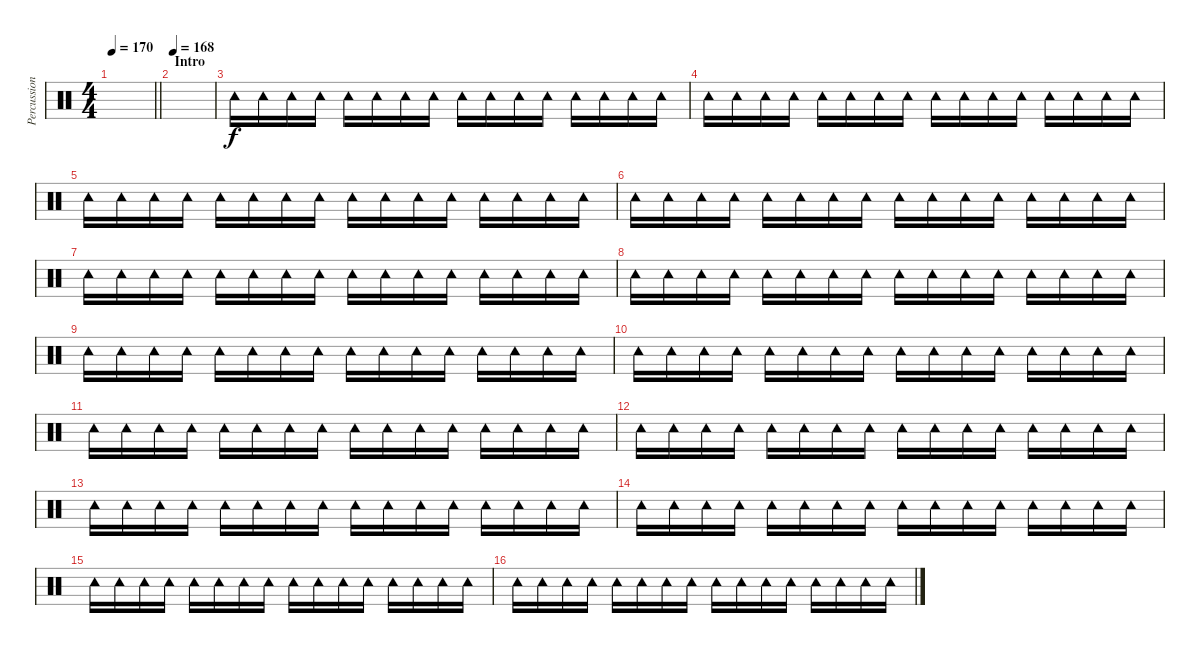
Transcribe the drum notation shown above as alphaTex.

\track ("Percussion" "Percussion") {instrument percussion}
\staff {score}
\articulation defaults
\ts (4 4)
\tempo 170
\clef neutral
\barLineRight lightlight
\ks c
|
\section ("" "Intro")
\tempo 168
|
"Tambourine (hit)".16 "Tambourine (hit)".16 "Tambourine (hit)".16 "Tambourine (hit)".16 "Tambourine (hit)".16 "Tambourine (hit)".16 "Tambourine (hit)".16 "Tambourine (hit)".16 "Tambourine (hit)".16 "Tambourine (hit)".16 "Tambourine (hit)".16 "Tambourine (hit)".16 "Tambourine (hit)".16 "Tambourine (hit)".16 "Tambourine (hit)".16 "Tambourine (hit)".16 |
"Tambourine (hit)".16 "Tambourine (hit)".16 "Tambourine (hit)".16 "Tambourine (hit)".16 "Tambourine (hit)".16 "Tambourine (hit)".16 "Tambourine (hit)".16 "Tambourine (hit)".16 "Tambourine (hit)".16 "Tambourine (hit)".16 "Tambourine (hit)".16 "Tambourine (hit)".16 "Tambourine (hit)".16 "Tambourine (hit)".16 "Tambourine (hit)".16 "Tambourine (hit)".16 |
"Tambourine (hit)".16 "Tambourine (hit)".16 "Tambourine (hit)".16 "Tambourine (hit)".16 "Tambourine (hit)".16 "Tambourine (hit)".16 "Tambourine (hit)".16 "Tambourine (hit)".16 "Tambourine (hit)".16 "Tambourine (hit)".16 "Tambourine (hit)".16 "Tambourine (hit)".16 "Tambourine (hit)".16 "Tambourine (hit)".16 "Tambourine (hit)".16 "Tambourine (hit)".16 |
"Tambourine (hit)".16 "Tambourine (hit)".16 "Tambourine (hit)".16 "Tambourine (hit)".16 "Tambourine (hit)".16 "Tambourine (hit)".16 "Tambourine (hit)".16 "Tambourine (hit)".16 "Tambourine (hit)".16 "Tambourine (hit)".16 "Tambourine (hit)".16 "Tambourine (hit)".16 "Tambourine (hit)".16 "Tambourine (hit)".16 "Tambourine (hit)".16 "Tambourine (hit)".16 |
"Tambourine (hit)".16 "Tambourine (hit)".16 "Tambourine (hit)".16 "Tambourine (hit)".16 "Tambourine (hit)".16 "Tambourine (hit)".16 "Tambourine (hit)".16 "Tambourine (hit)".16 "Tambourine (hit)".16 "Tambourine (hit)".16 "Tambourine (hit)".16 "Tambourine (hit)".16 "Tambourine (hit)".16 "Tambourine (hit)".16 "Tambourine (hit)".16 "Tambourine (hit)".16 |
"Tambourine (hit)".16 "Tambourine (hit)".16 "Tambourine (hit)".16 "Tambourine (hit)".16 "Tambourine (hit)".16 "Tambourine (hit)".16 "Tambourine (hit)".16 "Tambourine (hit)".16 "Tambourine (hit)".16 "Tambourine (hit)".16 "Tambourine (hit)".16 "Tambourine (hit)".16 "Tambourine (hit)".16 "Tambourine (hit)".16 "Tambourine (hit)".16 "Tambourine (hit)".16 |
"Tambourine (hit)".16 "Tambourine (hit)".16 "Tambourine (hit)".16 "Tambourine (hit)".16 "Tambourine (hit)".16 "Tambourine (hit)".16 "Tambourine (hit)".16 "Tambourine (hit)".16 "Tambourine (hit)".16 "Tambourine (hit)".16 "Tambourine (hit)".16 "Tambourine (hit)".16 "Tambourine (hit)".16 "Tambourine (hit)".16 "Tambourine (hit)".16 "Tambourine (hit)".16 |
"Tambourine (hit)".16 "Tambourine (hit)".16 "Tambourine (hit)".16 "Tambourine (hit)".16 "Tambourine (hit)".16 "Tambourine (hit)".16 "Tambourine (hit)".16 "Tambourine (hit)".16 "Tambourine (hit)".16 "Tambourine (hit)".16 "Tambourine (hit)".16 "Tambourine (hit)".16 "Tambourine (hit)".16 "Tambourine (hit)".16 "Tambourine (hit)".16 "Tambourine (hit)".16 |
"Tambourine (hit)".16 "Tambourine (hit)".16 "Tambourine (hit)".16 "Tambourine (hit)".16 "Tambourine (hit)".16 "Tambourine (hit)".16 "Tambourine (hit)".16 "Tambourine (hit)".16 "Tambourine (hit)".16 "Tambourine (hit)".16 "Tambourine (hit)".16 "Tambourine (hit)".16 "Tambourine (hit)".16 "Tambourine (hit)".16 "Tambourine (hit)".16 "Tambourine (hit)".16 |
"Tambourine (hit)".16 "Tambourine (hit)".16 "Tambourine (hit)".16 "Tambourine (hit)".16 "Tambourine (hit)".16 "Tambourine (hit)".16 "Tambourine (hit)".16 "Tambourine (hit)".16 "Tambourine (hit)".16 "Tambourine (hit)".16 "Tambourine (hit)".16 "Tambourine (hit)".16 "Tambourine (hit)".16 "Tambourine (hit)".16 "Tambourine (hit)".16 "Tambourine (hit)".16 |
"Tambourine (hit)".16 "Tambourine (hit)".16 "Tambourine (hit)".16 "Tambourine (hit)".16 "Tambourine (hit)".16 "Tambourine (hit)".16 "Tambourine (hit)".16 "Tambourine (hit)".16 "Tambourine (hit)".16 "Tambourine (hit)".16 "Tambourine (hit)".16 "Tambourine (hit)".16 "Tambourine (hit)".16 "Tambourine (hit)".16 "Tambourine (hit)".16 "Tambourine (hit)".16 |
"Tambourine (hit)".16 "Tambourine (hit)".16 "Tambourine (hit)".16 "Tambourine (hit)".16 "Tambourine (hit)".16 "Tambourine (hit)".16 "Tambourine (hit)".16 "Tambourine (hit)".16 "Tambourine (hit)".16 "Tambourine (hit)".16 "Tambourine (hit)".16 "Tambourine (hit)".16 "Tambourine (hit)".16 "Tambourine (hit)".16 "Tambourine (hit)".16 "Tambourine (hit)".16 |
"Tambourine (hit)".16 "Tambourine (hit)".16 "Tambourine (hit)".16 "Tambourine (hit)".16 "Tambourine (hit)".16 "Tambourine (hit)".16 "Tambourine (hit)".16 "Tambourine (hit)".16 "Tambourine (hit)".16 "Tambourine (hit)".16 "Tambourine (hit)".16 "Tambourine (hit)".16 "Tambourine (hit)".16 "Tambourine (hit)".16 "Tambourine (hit)".16 "Tambourine (hit)".16 |
"Tambourine (hit)".16 "Tambourine (hit)".16 "Tambourine (hit)".16 "Tambourine (hit)".16 "Tambourine (hit)".16 "Tambourine (hit)".16 "Tambourine (hit)".16 "Tambourine (hit)".16 "Tambourine (hit)".16 "Tambourine (hit)".16 "Tambourine (hit)".16 "Tambourine (hit)".16 "Tambourine (hit)".16 "Tambourine (hit)".16 "Tambourine (hit)".16 "Tambourine (hit)".16
